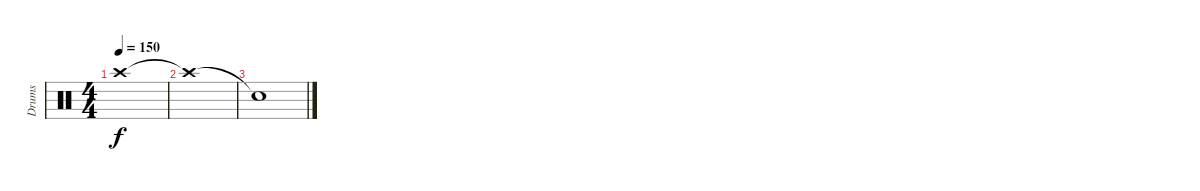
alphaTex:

\track ("Drums" "Drums") {instrument percussion bank 127}
\staff {score}
\articulation defaults
\ts (4 4)
\tempo 150
\clef neutral
\ks c "Crash high (hit)".1{dy f}
|
"Crash high (hit)"{t}.1 |
"Snare (hit)"{t}.1
